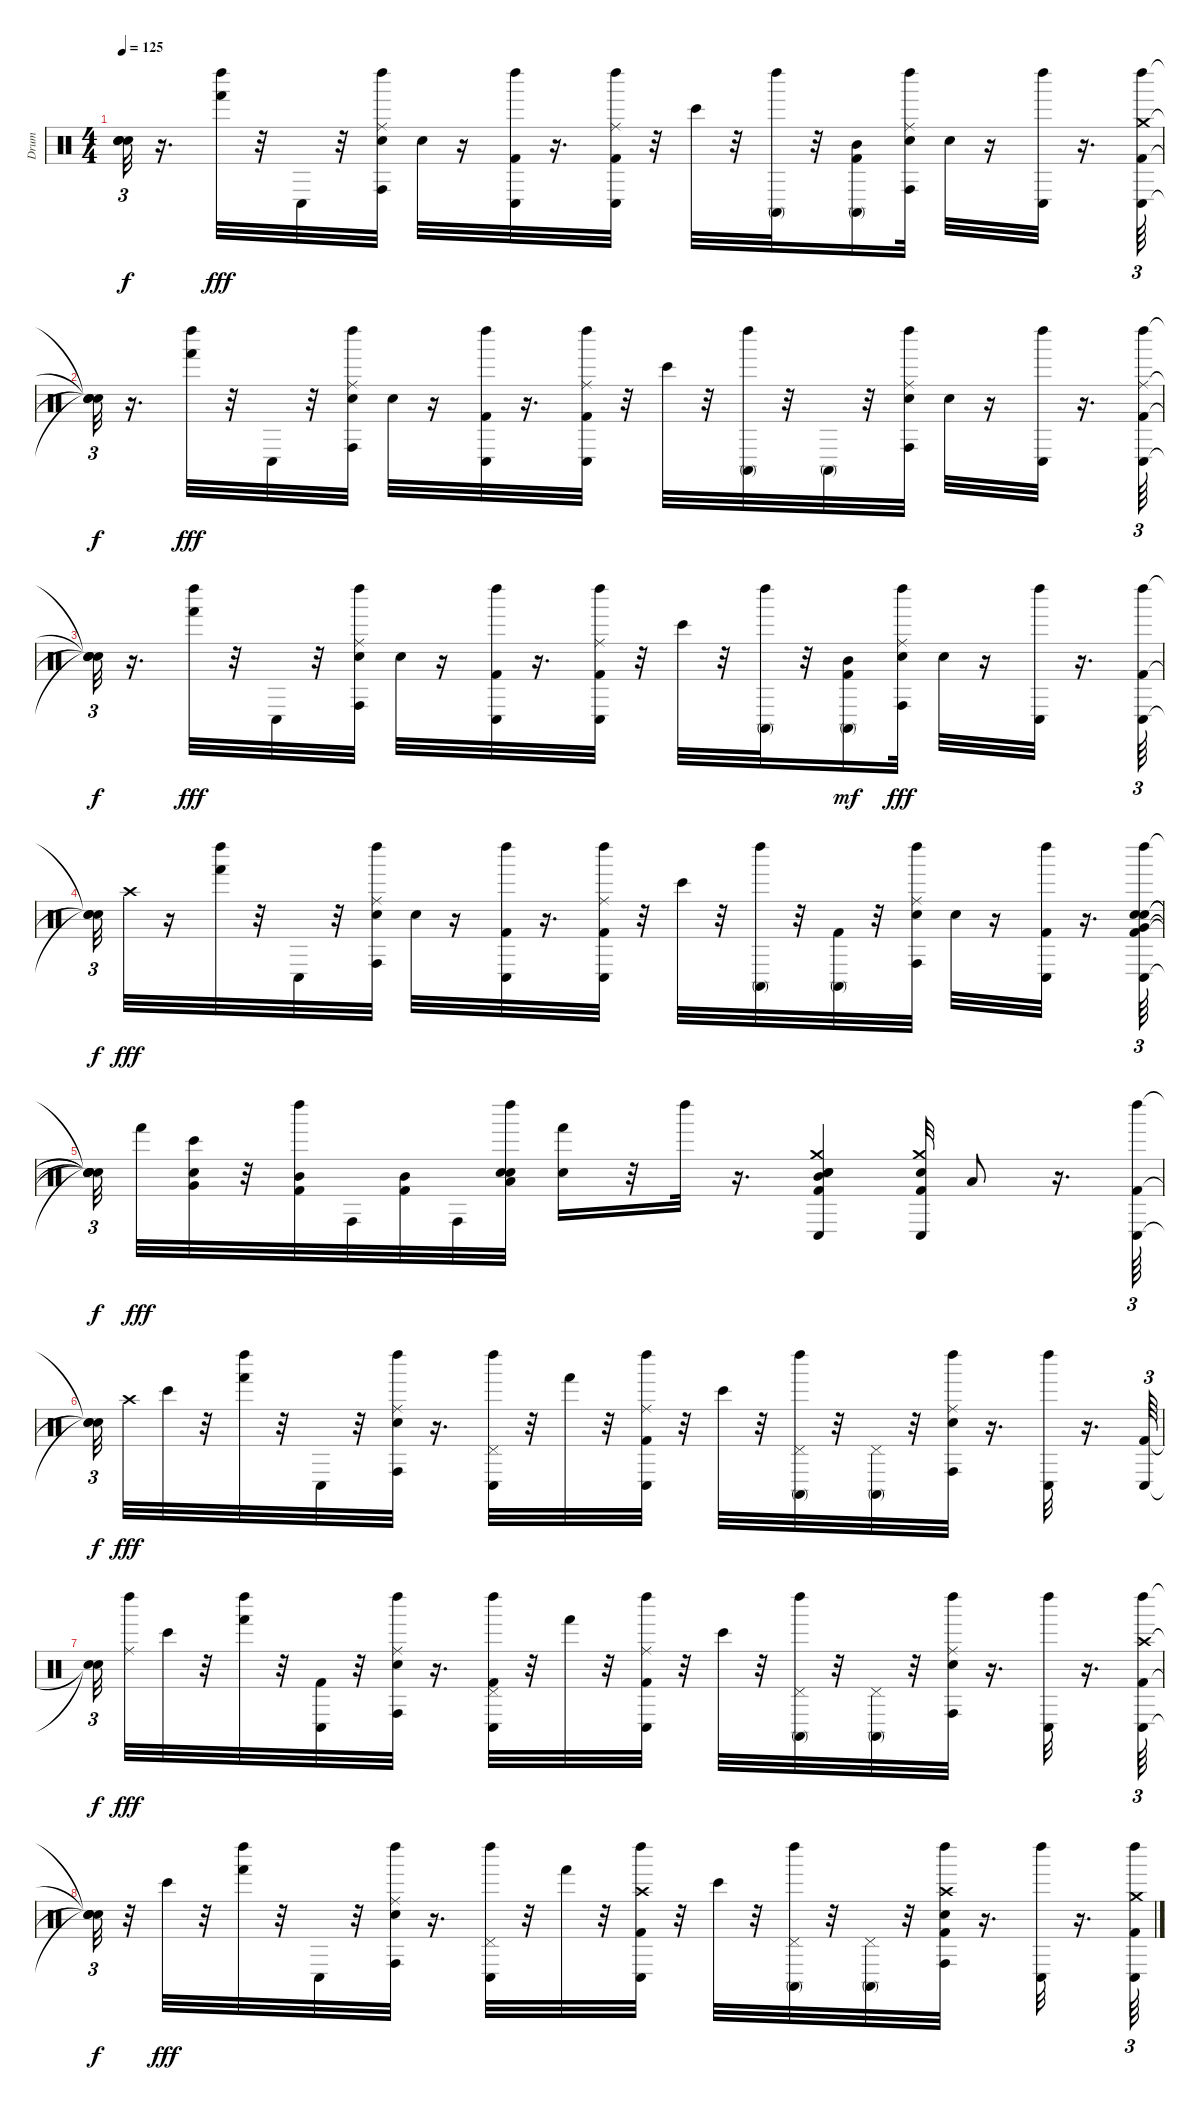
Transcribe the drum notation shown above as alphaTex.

\track ("Drum" "Drum") {instrument percussion}
\staff {score}
\articulation defaults
\ts (4 4)
\tempo 125
\clef neutral
\ks c
("Snare (hit)"{t} "Snare (hit)"{t} "Snare (hit)"{t} "Snare (hit)"{t}).32{tu (3 2) dy f} r.16{d} ("Hand (hit)" "Left Maraca (hit)").32{dy fff} r.32 "Conga low (hit)".32 r.32 ("Conga high (hit)" "Left Maraca (hit)" "Electric Snare (hit)" "Ride (middle)").32 "Electric Snare (hit)".32 r.16 ("Kick (hit) 2" "Conga low (hit)" "Left Maraca (hit)").32 r.16{d} ("Kick (hit) 2" "Conga low (hit)" "Left Maraca (hit)" "Ride (middle)").32 r.32 "Bongo High (hit)".32 r.32 ("Conga high (mute)" "Left Maraca (hit)").32 r.32 ("Kick (hit) 2" "Conga high (mute)" "Mid Tom (hit)").16 ("Conga high (hit)" "Left Maraca (hit)" "Electric Snare (hit)" "Ride (middle)").32 "Electric Snare (hit)".32 r.16 ("Conga low (hit)" "Left Maraca (hit)").32 r.16{d} ("Kick (hit) 2" "Conga low (hit)" "Left Maraca (hit)" "Crash medium (hit)").64{tu (3 2)} |
("Snare (hit)"{t} "Snare (hit)"{t} "Snare (hit)"{t} "Snare (hit)"{t}).32{tu (3 2) dy f} r.16{d} ("Hand (hit)" "Left Maraca (hit)").32{dy fff} r.32 "Conga low (hit)".32 r.32 ("Conga high (hit)" "Left Maraca (hit)" "Electric Snare (hit)" "Ride (middle)").32 "Electric Snare (hit)".32 r.16 ("Kick (hit) 2" "Conga low (hit)" "Left Maraca (hit)").32 r.16{d} ("Kick (hit) 2" "Conga low (hit)" "Left Maraca (hit)" "Ride (middle)").32 r.32 "Bongo High (hit)".32 r.32 ("Conga high (mute)" "Left Maraca (hit)").32 r.32 "Conga high (mute)".32 r.32 ("Conga high (hit)" "Left Maraca (hit)" "Electric Snare (hit)" "Ride (middle)").32 "Electric Snare (hit)".32 r.16 ("Conga low (hit)" "Left Maraca (hit)").32 r.16{d} ("Kick (hit) 2" "Conga low (hit)" "Left Maraca (hit)" "Ride (middle)").64{tu (3 2)} |
("Snare (hit)"{t} "Snare (hit)"{t} "Snare (hit)"{t} "Snare (hit)"{t}).32{tu (3 2) dy f} r.16{d} ("Hand (hit)" "Left Maraca (hit)").32{dy fff} r.32 "Conga low (hit)".32 r.32 ("Conga high (hit)" "Left Maraca (hit)" "Electric Snare (hit)" "Ride (middle)").32 "Electric Snare (hit)".32 r.16 ("Kick (hit) 2" "Conga low (hit)" "Left Maraca (hit)").32 r.16{d} ("Kick (hit) 2" "Conga low (hit)" "Left Maraca (hit)" "Ride (middle)").32 r.32 "Bongo High (hit)".32 r.32 ("Conga high (mute)" "Left Maraca (hit)").32 r.32 ("Kick (hit) 2" "Conga high (mute)" "Mid Tom (hit)").16{dy mf} ("Conga high (hit)" "Left Maraca (hit)" "Electric Snare (hit)" "Ride (middle)").32{dy fff} "Electric Snare (hit)".32 r.16 ("Conga low (hit)" "Left Maraca (hit)").32 r.16{d} ("Kick (hit) 2" "Conga low (hit)" "Left Maraca (hit)").64{tu (3 2)} |
("Snare (hit)"{t} "Snare (hit)"{t} "Snare (hit)"{t}).32{tu (3 2) dy f} "Crash high (hit)".32{dy fff} r.16 ("Hand (hit)" "Left Maraca (hit)").32 r.32 "Conga low (hit)".32 r.32 ("Conga high (hit)" "Left Maraca (hit)" "Electric Snare (hit)" "Ride (middle)").32 "Electric Snare (hit)".32 r.16 ("Kick (hit) 2" "Conga low (hit)" "Left Maraca (hit)").32 r.16{d} ("Kick (hit) 2" "Conga low (hit)" "Left Maraca (hit)" "Ride (middle)").32 r.32 "Bongo High (hit)".32 r.32 ("Conga high (mute)" "Left Maraca (hit)").32 r.32 ("Kick (hit) 2" "Conga high (mute)").32 r.32 ("Conga high (hit)" "Left Maraca (hit)" "Electric Snare (hit)" "Ride (middle)").32 "Electric Snare (hit)".32 r.16 ("Kick (hit) 2" "Conga low (hit)" "Left Maraca (hit)").32 r.16{d} ("Kick (hit) 2" "Conga low (hit)" "Left Maraca (hit)" "Electric Snare (hit)" "Very Low Tom (hit)" "Electric Snare (hit)").64{tu (3 2)} |
("Snare (hit)"{t} "Snare (hit)"{t} "Snare (hit)"{t} "Snare (hit)"{t} "Snare (hit)"{t} "Snare (hit)"{t}).32{tu (3 2) dy f beam splitsecondary} "Hand (hit)".32{dy fff} ("Bongo High (hit)" "Very Low Tom (hit)" "Electric Snare (hit)").32 r.32 ("Kick (hit) 2" "Left Maraca (hit)" "Mid Tom (hit)").32 "Conga high (hit)".32 ("Kick (hit) 2" "Mid Tom (hit)").32 "Conga high (hit)".32 ("Electric Snare (hit)" "Left Maraca (hit)" "Low Tom (hit)" "Electric Snare (hit)").32 ("Electric Snare (hit)" "Hand (hit)").16 r.32 "Left Maraca (hit)".32 r.16{d} ("Crash medium (hit)" "Electric Snare (hit)" "Mid Tom (hit)" "Kick (hit) 2" "Conga low (hit)" "Electric Snare (hit)").4 ("Kick (hit) 2" "Conga low (hit)" "Electric Snare (hit)" "Crash medium (hit)").32 "Low Tom (hit)".8 r.16{d} ("Kick (hit) 2" "Conga low (hit)" "Left Maraca (hit)").64{tu (3 2)} |
("Snare (hit)"{t} "Snare (hit)"{t} "Snare (hit)"{t}).32{tu (3 2) dy f beam splitsecondary} "Crash high (hit)".32{dy fff} "Bongo High (hit)".32 r.32 ("Hand (hit)" "Left Maraca (hit)").32 r.32 "Conga low (hit)".32 r.32 ("Conga high (hit)" "Left Maraca (hit)" "Electric Snare (hit)" "Ride (middle)").32 r.16{d} ("Pedal Hi-Hat (hit)" "Conga low (hit)" "Left Maraca (hit)").32 r.32 "Hand (hit)".32 r.32 ("Kick (hit) 2" "Conga low (hit)" "Left Maraca (hit)" "Ride (middle)").32 r.32 "Bongo High (hit)".32 r.32 ("Pedal Hi-Hat (hit)" "Conga high (mute)" "Left Maraca (hit)").32 r.32 ("Pedal Hi-Hat (hit)" "Conga high (mute)").32 r.32 ("Conga high (hit)" "Left Maraca (hit)" "Electric Snare (hit)" "Ride (middle)").32 r.16{d} ("Conga low (hit)" "Left Maraca (hit)").32 r.16{d} ("Kick (hit) 2" "Conga low (hit)").64{tu (3 2)} |
("Snare (hit)"{t} "Snare (hit)"{t}).32{tu (3 2) dy f beam splitsecondary} ("Left Maraca (hit)" "Ride (middle)").32{dy fff} "Bongo High (hit)".32 r.32 ("Hand (hit)" "Left Maraca (hit)").32 r.32 ("Kick (hit) 2" "Conga low (hit)").32 r.32 ("Conga high (hit)" "Left Maraca (hit)" "Electric Snare (hit)" "Ride (middle)").32 r.16{d} ("Kick (hit) 2" "Pedal Hi-Hat (hit)" "Conga low (hit)" "Left Maraca (hit)").32 r.32 "Hand (hit)".32 r.32 ("Kick (hit) 2" "Conga low (hit)" "Left Maraca (hit)" "Ride (middle)").32 r.32 "Bongo High (hit)".32 r.32 ("Pedal Hi-Hat (hit)" "Conga high (mute)" "Left Maraca (hit)").32 r.32 ("Pedal Hi-Hat (hit)" "Conga high (mute)").32 r.32 ("Conga high (hit)" "Left Maraca (hit)" "Electric Snare (hit)" "Ride (middle)").32 r.16{d} ("Conga low (hit)" "Left Maraca (hit)").32 r.16{d} ("Kick (hit) 2" "Conga low (hit)" "Left Maraca (hit)" "Crash high (hit)").64{tu (3 2)} |
("Snare (hit)"{t} "Snare (hit)"{t} "Snare (hit)"{t} "Snare (hit)"{t}).32{tu (3 2) dy f} r.32 "Bongo High (hit)".32{dy fff} r.32 ("Hand (hit)" "Left Maraca (hit)").32 r.32 "Conga low (hit)".32 r.32 ("Conga high (hit)" "Left Maraca (hit)" "Electric Snare (hit)" "Ride (middle)").32 r.16{d} ("Pedal Hi-Hat (hit)" "Conga low (hit)" "Left Maraca (hit)").32 r.32 "Hand (hit)".32 r.32 ("Kick (hit) 2" "Conga low (hit)" "Left Maraca (hit)" "Crash high (hit)").32 r.32 "Bongo High (hit)".32 r.32 ("Pedal Hi-Hat (hit)" "Conga high (mute)" "Left Maraca (hit)").32 r.32 ("Pedal Hi-Hat (hit)" "Conga high (mute)").32 r.32 ("Kick (hit) 2" "Conga high (hit)" "Left Maraca (hit)" "Electric Snare (hit)" "Crash high (hit)").32 r.16{d} ("Conga low (hit)" "Left Maraca (hit)").32 r.16{d} ("Kick (hit) 2" "Conga low (hit)" "Left Maraca (hit)" "Crash medium (hit)").64{tu (3 2)}
